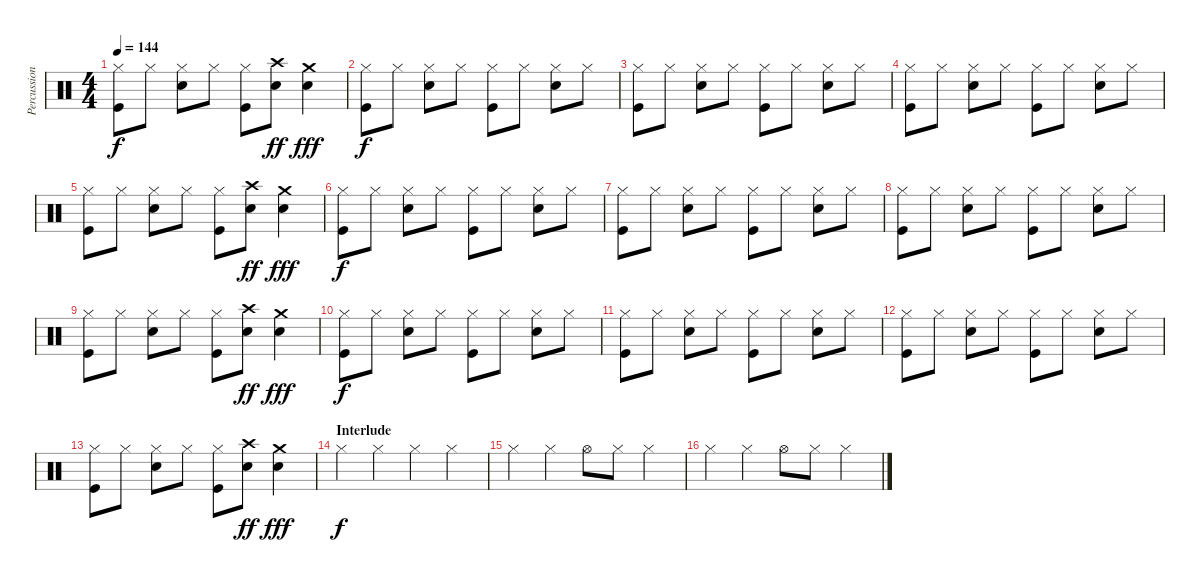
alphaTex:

\track ("Percussions" "Percussion") {instrument percussion}
\staff {score}
\articulation defaults
\ts (4 4)
\tempo 144
\clef neutral
\ks c
("Hi-Hat (closed)" "Kick (hit)").8{dy f} "Hi-Hat (closed)".8 ("Hi-Hat (closed)" "Snare (hit) 2").8 "Hi-Hat (closed)".8 ("Hi-Hat (closed)" "Kick (hit)").8 ("Crash high (hit)" "Snare (hit) 2").8{dy ff} ("Crash medium (hit)" "Snare (hit) 2").4{dy fff} |
("Hi-Hat (closed)" "Kick (hit)").8{dy f} "Hi-Hat (closed)".8 ("Hi-Hat (closed)" "Snare (hit) 2").8 "Hi-Hat (closed)".8 ("Hi-Hat (closed)" "Kick (hit)").8 "Hi-Hat (closed)".8 ("Hi-Hat (closed)" "Snare (hit) 2").8 "Hi-Hat (closed)".8 |
("Hi-Hat (closed)" "Kick (hit)").8 "Hi-Hat (closed)".8 ("Hi-Hat (closed)" "Snare (hit) 2").8 "Hi-Hat (closed)".8 ("Hi-Hat (closed)" "Kick (hit)").8 "Hi-Hat (closed)".8 ("Hi-Hat (closed)" "Snare (hit) 2").8 "Hi-Hat (closed)".8 |
("Hi-Hat (closed)" "Kick (hit)").8 "Hi-Hat (closed)".8 ("Hi-Hat (closed)" "Snare (hit) 2").8 "Hi-Hat (closed)".8 ("Hi-Hat (closed)" "Kick (hit)").8 "Hi-Hat (closed)".8 ("Hi-Hat (closed)" "Snare (hit) 2").8 "Hi-Hat (closed)".8 |
("Hi-Hat (closed)" "Kick (hit)").8 "Hi-Hat (closed)".8 ("Hi-Hat (closed)" "Snare (hit) 2").8 "Hi-Hat (closed)".8 ("Hi-Hat (closed)" "Kick (hit)").8 ("Crash high (hit)" "Snare (hit) 2").8{dy ff} ("Crash medium (hit)" "Snare (hit) 2").4{dy fff} |
("Hi-Hat (closed)" "Kick (hit)").8{dy f} "Hi-Hat (closed)".8 ("Hi-Hat (closed)" "Snare (hit) 2").8 "Hi-Hat (closed)".8 ("Hi-Hat (closed)" "Kick (hit)").8 "Hi-Hat (closed)".8 ("Hi-Hat (closed)" "Snare (hit) 2").8 "Hi-Hat (closed)".8 |
("Hi-Hat (closed)" "Kick (hit)").8 "Hi-Hat (closed)".8 ("Hi-Hat (closed)" "Snare (hit) 2").8 "Hi-Hat (closed)".8 ("Hi-Hat (closed)" "Kick (hit)").8 "Hi-Hat (closed)".8 ("Hi-Hat (closed)" "Snare (hit) 2").8 "Hi-Hat (closed)".8 |
("Hi-Hat (closed)" "Kick (hit)").8 "Hi-Hat (closed)".8 ("Hi-Hat (closed)" "Snare (hit) 2").8 "Hi-Hat (closed)".8 ("Hi-Hat (closed)" "Kick (hit)").8 "Hi-Hat (closed)".8 ("Hi-Hat (closed)" "Snare (hit) 2").8 "Hi-Hat (closed)".8 |
("Hi-Hat (closed)" "Kick (hit)").8 "Hi-Hat (closed)".8 ("Hi-Hat (closed)" "Snare (hit) 2").8 "Hi-Hat (closed)".8 ("Hi-Hat (closed)" "Kick (hit)").8 ("Crash high (hit)" "Snare (hit) 2").8{dy ff} ("Crash medium (hit)" "Snare (hit) 2").4{dy fff} |
("Hi-Hat (closed)" "Kick (hit)").8{dy f} "Hi-Hat (closed)".8 ("Hi-Hat (closed)" "Snare (hit) 2").8 "Hi-Hat (closed)".8 ("Hi-Hat (closed)" "Kick (hit)").8 "Hi-Hat (closed)".8 ("Hi-Hat (closed)" "Snare (hit) 2").8 "Hi-Hat (closed)".8 |
("Hi-Hat (closed)" "Kick (hit)").8 "Hi-Hat (closed)".8 ("Hi-Hat (closed)" "Snare (hit) 2").8 "Hi-Hat (closed)".8 ("Hi-Hat (closed)" "Kick (hit)").8 "Hi-Hat (closed)".8 ("Hi-Hat (closed)" "Snare (hit) 2").8 "Hi-Hat (closed)".8 |
("Hi-Hat (closed)" "Kick (hit)").8 "Hi-Hat (closed)".8 ("Hi-Hat (closed)" "Snare (hit) 2").8 "Hi-Hat (closed)".8 ("Hi-Hat (closed)" "Kick (hit)").8 "Hi-Hat (closed)".8 ("Hi-Hat (closed)" "Snare (hit) 2").8 "Hi-Hat (closed)".8 |
("Hi-Hat (closed)" "Kick (hit)").8 "Hi-Hat (closed)".8 ("Hi-Hat (closed)" "Snare (hit) 2").8 "Hi-Hat (closed)".8 ("Hi-Hat (closed)" "Kick (hit)").8 ("Crash high (hit)" "Snare (hit) 2").8{dy ff} ("Crash medium (hit)" "Snare (hit) 2").4{dy fff} |
\section ("" "Interlude")
"Hi-Hat (closed)".4{dy f} "Hi-Hat (closed)".4 "Hi-Hat (closed)".4 "Hi-Hat (closed)".4 |
"Hi-Hat (closed)".4 "Hi-Hat (closed)".4 "Hi-Hat (open)".8 "Hi-Hat (closed)".8 "Hi-Hat (closed)".4 |
"Hi-Hat (closed)".4 "Hi-Hat (closed)".4 "Hi-Hat (open)".8 "Hi-Hat (closed)".8 "Hi-Hat (closed)".4
